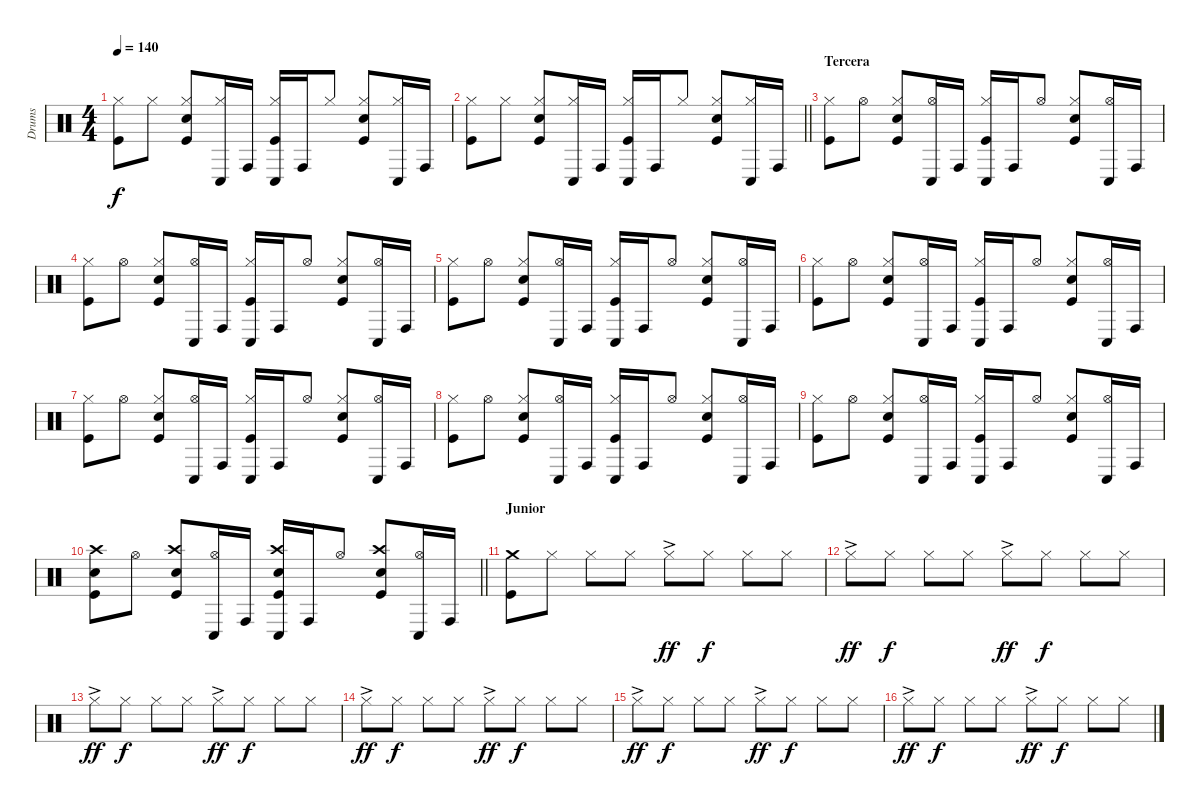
\track ("Drums" "Drums") {instrument percussion}
\staff {score}
\articulation defaults
\ts (4 4)
\tempo 140
\clef neutral
\ks c
("Hi-Hat (closed)" "Kick (hit)").8{dy f} "Hi-Hat (closed)".8 ("Hi-Hat (closed)" "Snare (hit) 2" "Kick (hit)").8 ("Hi-Hat (closed)" "Conga low (hit)").16 "Conga high (hit)".16 ("Hi-Hat (closed)" "Conga low (hit)" "Kick (hit)").16 "Conga high (hit)".16 "Hi-Hat (closed)".8 ("Hi-Hat (closed)" "Snare (hit) 2" "Kick (hit)").8 ("Hi-Hat (closed)" "Conga low (hit)").16 "Conga high (hit)".16 |
\barLineRight lightlight
("Hi-Hat (closed)" "Kick (hit)").8 "Hi-Hat (closed)".8 ("Hi-Hat (closed)" "Snare (hit) 2" "Kick (hit)").8 ("Hi-Hat (closed)" "Conga low (hit)").16 "Conga high (hit)".16 ("Hi-Hat (closed)" "Conga low (hit)" "Kick (hit)").16 "Conga high (hit)".16 "Hi-Hat (closed)".8 ("Hi-Hat (closed)" "Snare (hit) 2" "Kick (hit)").8 ("Hi-Hat (closed)" "Conga low (hit)").16 "Conga high (hit)".16 |
\section ("" "Tercera")
("Hi-Hat (closed)" "Kick (hit)").8 "Hi-Hat (open)".8 ("Hi-Hat (closed)" "Snare (hit) 2" "Kick (hit)").8 ("Hi-Hat (open)" "Conga low (hit)").16 "Conga high (hit)".16 ("Hi-Hat (closed)" "Conga low (hit)" "Kick (hit)").16 "Conga high (hit)".16 "Hi-Hat (open)".8 ("Hi-Hat (closed)" "Snare (hit) 2" "Kick (hit)").8 ("Hi-Hat (open)" "Conga low (hit)").16 "Conga high (hit)".16 |
("Hi-Hat (closed)" "Kick (hit)").8 "Hi-Hat (open)".8 ("Hi-Hat (closed)" "Snare (hit) 2" "Kick (hit)").8 ("Hi-Hat (open)" "Conga low (hit)").16 "Conga high (hit)".16 ("Hi-Hat (closed)" "Conga low (hit)" "Kick (hit)").16 "Conga high (hit)".16 "Hi-Hat (open)".8 ("Hi-Hat (closed)" "Snare (hit) 2" "Kick (hit)").8 ("Hi-Hat (open)" "Conga low (hit)").16 "Conga high (hit)".16 |
("Hi-Hat (closed)" "Kick (hit)").8 "Hi-Hat (open)".8 ("Hi-Hat (closed)" "Snare (hit) 2" "Kick (hit)").8 ("Hi-Hat (open)" "Conga low (hit)").16 "Conga high (hit)".16 ("Hi-Hat (closed)" "Conga low (hit)" "Kick (hit)").16 "Conga high (hit)".16 "Hi-Hat (open)".8 ("Hi-Hat (closed)" "Snare (hit) 2" "Kick (hit)").8 ("Hi-Hat (open)" "Conga low (hit)").16 "Conga high (hit)".16 |
("Hi-Hat (closed)" "Kick (hit)").8 "Hi-Hat (open)".8 ("Hi-Hat (closed)" "Snare (hit) 2" "Kick (hit)").8 ("Hi-Hat (open)" "Conga low (hit)").16 "Conga high (hit)".16 ("Hi-Hat (closed)" "Conga low (hit)" "Kick (hit)").16 "Conga high (hit)".16 "Hi-Hat (open)".8 ("Hi-Hat (closed)" "Snare (hit) 2" "Kick (hit)").8 ("Hi-Hat (open)" "Conga low (hit)").16 "Conga high (hit)".16 |
("Hi-Hat (closed)" "Kick (hit)").8 "Hi-Hat (open)".8 ("Hi-Hat (closed)" "Snare (hit) 2" "Kick (hit)").8 ("Hi-Hat (open)" "Conga low (hit)").16 "Conga high (hit)".16 ("Hi-Hat (closed)" "Conga low (hit)" "Kick (hit)").16 "Conga high (hit)".16 "Hi-Hat (open)".8 ("Hi-Hat (closed)" "Snare (hit) 2" "Kick (hit)").8 ("Hi-Hat (open)" "Conga low (hit)").16 "Conga high (hit)".16 |
("Hi-Hat (closed)" "Kick (hit)").8 "Hi-Hat (open)".8 ("Hi-Hat (closed)" "Snare (hit) 2" "Kick (hit)").8 ("Hi-Hat (open)" "Conga low (hit)").16 "Conga high (hit)".16 ("Hi-Hat (closed)" "Conga low (hit)" "Kick (hit)").16 "Conga high (hit)".16 "Hi-Hat (open)".8 ("Hi-Hat (closed)" "Snare (hit) 2" "Kick (hit)").8 ("Hi-Hat (open)" "Conga low (hit)").16 "Conga high (hit)".16 |
("Hi-Hat (closed)" "Kick (hit)").8 "Hi-Hat (open)".8 ("Hi-Hat (closed)" "Snare (hit) 2" "Kick (hit)").8 ("Hi-Hat (open)" "Conga low (hit)").16 "Conga high (hit)".16 ("Hi-Hat (closed)" "Conga low (hit)" "Kick (hit)").16 "Conga high (hit)".16 "Hi-Hat (open)".8 ("Hi-Hat (closed)" "Snare (hit) 2" "Kick (hit)").8 ("Hi-Hat (open)" "Conga low (hit)").16 "Conga high (hit)".16 |
\barLineRight lightlight
("Crash high (hit)" "Snare (hit) 2" "Kick (hit)").8 "Hi-Hat (open)".8 ("Crash high (hit)" "Snare (hit) 2" "Kick (hit)").8 ("Hi-Hat (open)" "Conga low (hit)").16 "Conga high (hit)".16 ("Crash high (hit)" "Conga low (hit)" "Snare (hit) 2" "Kick (hit)").16 "Conga high (hit)".16 "Hi-Hat (open)".8 ("Crash high (hit)" "Snare (hit) 2" "Kick (hit)").8 ("Hi-Hat (open)" "Conga low (hit)").16 "Conga high (hit)".16 |
\section ("" "Junior")
("Crash medium (hit)" "Kick (hit)").8 "Hi-Hat (closed)".8 "Hi-Hat (closed)".8 "Hi-Hat (closed)".8 "Hi-Hat (closed)"{ac}.8{dy ff} "Hi-Hat (closed)".8{dy f} "Hi-Hat (closed)".8 "Hi-Hat (closed)".8 |
"Hi-Hat (closed)"{ac}.8{dy ff} "Hi-Hat (closed)".8{dy f} "Hi-Hat (closed)".8 "Hi-Hat (closed)".8 "Hi-Hat (closed)"{ac}.8{dy ff} "Hi-Hat (closed)".8{dy f} "Hi-Hat (closed)".8 "Hi-Hat (closed)".8 |
"Hi-Hat (closed)"{ac}.8{dy ff} "Hi-Hat (closed)".8{dy f} "Hi-Hat (closed)".8 "Hi-Hat (closed)".8 "Hi-Hat (closed)"{ac}.8{dy ff} "Hi-Hat (closed)".8{dy f} "Hi-Hat (closed)".8 "Hi-Hat (closed)".8 |
"Hi-Hat (closed)"{ac}.8{dy ff} "Hi-Hat (closed)".8{dy f} "Hi-Hat (closed)".8 "Hi-Hat (closed)".8 "Hi-Hat (closed)"{ac}.8{dy ff} "Hi-Hat (closed)".8{dy f} "Hi-Hat (closed)".8 "Hi-Hat (closed)".8 |
"Hi-Hat (closed)"{ac}.8{dy ff} "Hi-Hat (closed)".8{dy f} "Hi-Hat (closed)".8 "Hi-Hat (closed)".8 "Hi-Hat (closed)"{ac}.8{dy ff} "Hi-Hat (closed)".8{dy f} "Hi-Hat (closed)".8 "Hi-Hat (closed)".8 |
"Hi-Hat (closed)"{ac}.8{dy ff} "Hi-Hat (closed)".8{dy f} "Hi-Hat (closed)".8 "Hi-Hat (closed)".8 "Hi-Hat (closed)"{ac}.8{dy ff} "Hi-Hat (closed)".8{dy f} "Hi-Hat (closed)".8 "Hi-Hat (closed)".8
